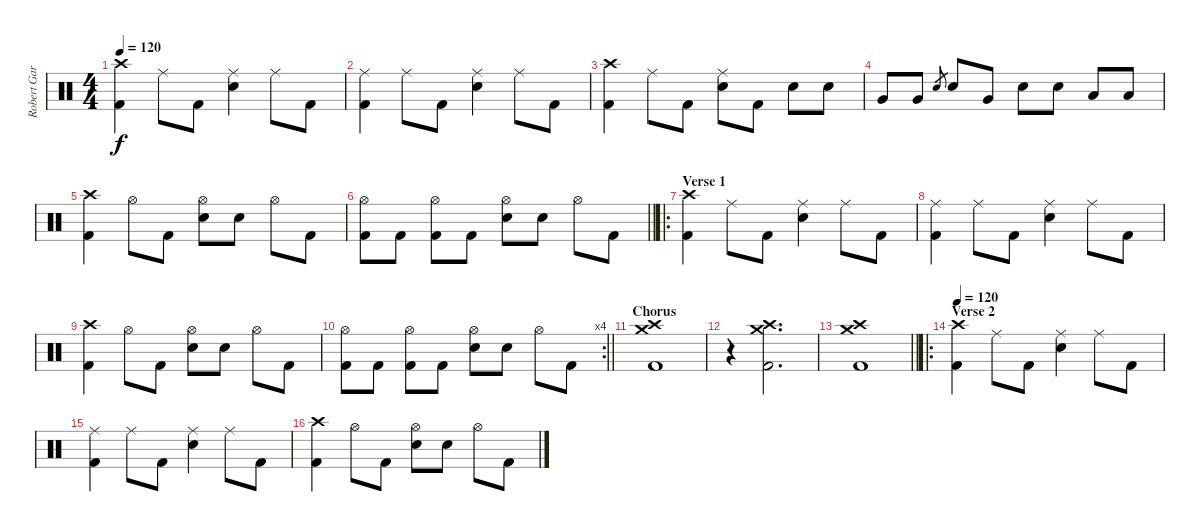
\track ("Robert Garven" "Robert Gar") {instrument percussion}
\staff {score}
\articulation defaults
\ts (4 4)
\tempo 120
\clef neutral
\ks c
("Crash high (hit)" "Kick (hit) 2").4{dy f} "Ride (middle)".8 "Kick (hit) 2".8 ("Ride (middle)" "Electric Snare (hit)").4 "Ride (middle)".8 "Kick (hit) 2".8 |
("Ride (middle)" "Kick (hit) 2").4 "Ride (middle)".8 "Kick (hit) 2".8 ("Ride (middle)" "Electric Snare (hit)").4 "Ride (middle)".8 "Kick (hit) 2".8 |
("Crash high (hit)" "Kick (hit) 2").4 "Ride (middle)".8 "Kick (hit) 2".8 ("Ride (middle)" "Electric Snare (hit)").8 "Kick (hit) 2".8 "Electric Snare (hit)".8 "Electric Snare (hit)".8 |
"Very Low Tom (hit)".8 "Very Low Tom (hit)".8 "Electric Snare (hit)".8{gr} "Electric Snare (hit)".8 "Very Low Tom (hit)".8 "Electric Snare (hit)".8 "Electric Snare (hit)".8 "Low Tom (hit)".8 "Low Tom (hit)".8 |
("Crash high (hit)" "Kick (hit) 2").4 "Hi-Hat (open)".8 "Kick (hit) 2".8 ("Hi-Hat (open)" "Electric Snare (hit)").8 "Electric Snare (hit)".8 "Hi-Hat (open)".8 "Kick (hit) 2".8 |
\barLineRight lightlight
("Hi-Hat (open)" "Kick (hit) 2").8 "Kick (hit) 2".8 ("Hi-Hat (open)" "Kick (hit) 2").8 "Kick (hit) 2".8 ("Hi-Hat (open)" "Electric Snare (hit)").8 "Electric Snare (hit)".8 "Hi-Hat (open)".8 "Kick (hit) 2".8 |
\ro
\section ("" "Verse 1")
("Crash high (hit)" "Kick (hit) 2").4 "Ride (middle)".8 "Kick (hit) 2".8 ("Ride (middle)" "Electric Snare (hit)").4 "Ride (middle)".8 "Kick (hit) 2".8 |
("Ride (middle)" "Kick (hit) 2").4 "Ride (middle)".8 "Kick (hit) 2".8 ("Ride (middle)" "Electric Snare (hit)").4 "Ride (middle)".8 "Kick (hit) 2".8 |
("Crash high (hit)" "Kick (hit) 2").4 "Hi-Hat (open)".8 "Kick (hit) 2".8 ("Hi-Hat (open)" "Electric Snare (hit)").8 "Electric Snare (hit)".8 "Hi-Hat (open)".8 "Kick (hit) 2".8 |
\rc 4
\barLineRight lightlight
("Hi-Hat (open)" "Kick (hit) 2").8 "Kick (hit) 2".8 ("Hi-Hat (open)" "Kick (hit) 2").8 "Kick (hit) 2".8 ("Hi-Hat (open)" "Electric Snare (hit)").8 "Electric Snare (hit)".8 "Hi-Hat (open)".8 "Kick (hit) 2".8 |
\section ("" "Chorus")
("Crash high (hit)" "Crash medium (hit)" "Kick (hit) 2").1 |
r.4 ("Crash high (hit)" "Crash medium (hit)" "Kick (hit) 2").2{d} |
\barLineRight lightlight
("Crash high (hit)" "Crash medium (hit)" "Kick (hit) 2").1 |
\ro
\section ("" "Verse 2")
\tempo 120
("Crash high (hit)" "Kick (hit) 2").4 "Ride (middle)".8 "Kick (hit) 2".8 ("Ride (middle)" "Electric Snare (hit)").4 "Ride (middle)".8 "Kick (hit) 2".8 |
("Ride (middle)" "Kick (hit) 2").4 "Ride (middle)".8 "Kick (hit) 2".8 ("Ride (middle)" "Electric Snare (hit)").4 "Ride (middle)".8 "Kick (hit) 2".8 |
("Crash high (hit)" "Kick (hit) 2").4 "Hi-Hat (open)".8 "Kick (hit) 2".8 ("Hi-Hat (open)" "Electric Snare (hit)").8 "Electric Snare (hit)".8 "Hi-Hat (open)".8 "Kick (hit) 2".8
